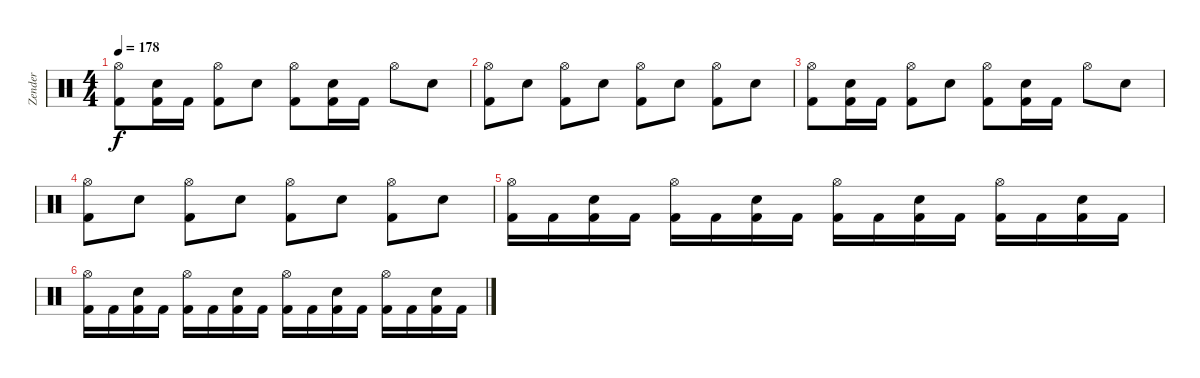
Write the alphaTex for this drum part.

\track ("Zender" "Zender") {instrument percussion}
\staff {score}
\articulation defaults
\ts (4 4)
\tempo 178
\clef neutral
\ks c
("Hi-Hat (open)" "Kick (hit) 2").8{dy f} ("Electric Snare (hit)" "Kick (hit) 2").16 "Kick (hit) 2".16 ("Hi-Hat (open)" "Kick (hit) 2").8 "Electric Snare (hit)".8 ("Hi-Hat (open)" "Kick (hit) 2").8 ("Electric Snare (hit)" "Kick (hit) 2").16 "Kick (hit) 2".16 "Hi-Hat (open)".8 "Electric Snare (hit)".8 |
("Hi-Hat (open)" "Kick (hit) 2").8 "Electric Snare (hit)".8 ("Hi-Hat (open)" "Kick (hit) 2").8 "Electric Snare (hit)".8 ("Hi-Hat (open)" "Kick (hit) 2").8 "Electric Snare (hit)".8 ("Hi-Hat (open)" "Kick (hit) 2").8 "Electric Snare (hit)".8 |
("Hi-Hat (open)" "Kick (hit) 2").8{volume 0} ("Electric Snare (hit)" "Kick (hit) 2").16 "Kick (hit) 2".16 ("Hi-Hat (open)" "Kick (hit) 2").8 "Electric Snare (hit)".8 ("Hi-Hat (open)" "Kick (hit) 2").8 ("Electric Snare (hit)" "Kick (hit) 2").16 "Kick (hit) 2".16 "Hi-Hat (open)".8 "Electric Snare (hit)".8 |
("Hi-Hat (open)" "Kick (hit) 2").8 "Electric Snare (hit)".8 ("Hi-Hat (open)" "Kick (hit) 2").8 "Electric Snare (hit)".8 ("Hi-Hat (open)" "Kick (hit) 2").8 "Electric Snare (hit)".8 ("Hi-Hat (open)" "Kick (hit) 2").8 "Electric Snare (hit)".8 |
("Hi-Hat (open)" "Kick (hit) 2").16 "Kick (hit) 2".16 ("Electric Snare (hit)" "Kick (hit) 2").16 "Kick (hit) 2".16 ("Hi-Hat (open)" "Kick (hit) 2").16 "Kick (hit) 2".16 ("Electric Snare (hit)" "Kick (hit) 2").16 "Kick (hit) 2".16 ("Hi-Hat (open)" "Kick (hit) 2").16 "Kick (hit) 2".16 ("Electric Snare (hit)" "Kick (hit) 2").16 "Kick (hit) 2".16 ("Hi-Hat (open)" "Kick (hit) 2").16 "Kick (hit) 2".16 ("Electric Snare (hit)" "Kick (hit) 2").16 "Kick (hit) 2".16 |
("Hi-Hat (open)" "Kick (hit) 2").16 "Kick (hit) 2".16 ("Electric Snare (hit)" "Kick (hit) 2").16 "Kick (hit) 2".16 ("Hi-Hat (open)" "Kick (hit) 2").16 "Kick (hit) 2".16 ("Electric Snare (hit)" "Kick (hit) 2").16 "Kick (hit) 2".16 ("Hi-Hat (open)" "Kick (hit) 2").16 "Kick (hit) 2".16 ("Electric Snare (hit)" "Kick (hit) 2").16 "Kick (hit) 2".16 ("Hi-Hat (open)" "Kick (hit) 2").16 "Kick (hit) 2".16 ("Electric Snare (hit)" "Kick (hit) 2").16 "Kick (hit) 2".16
